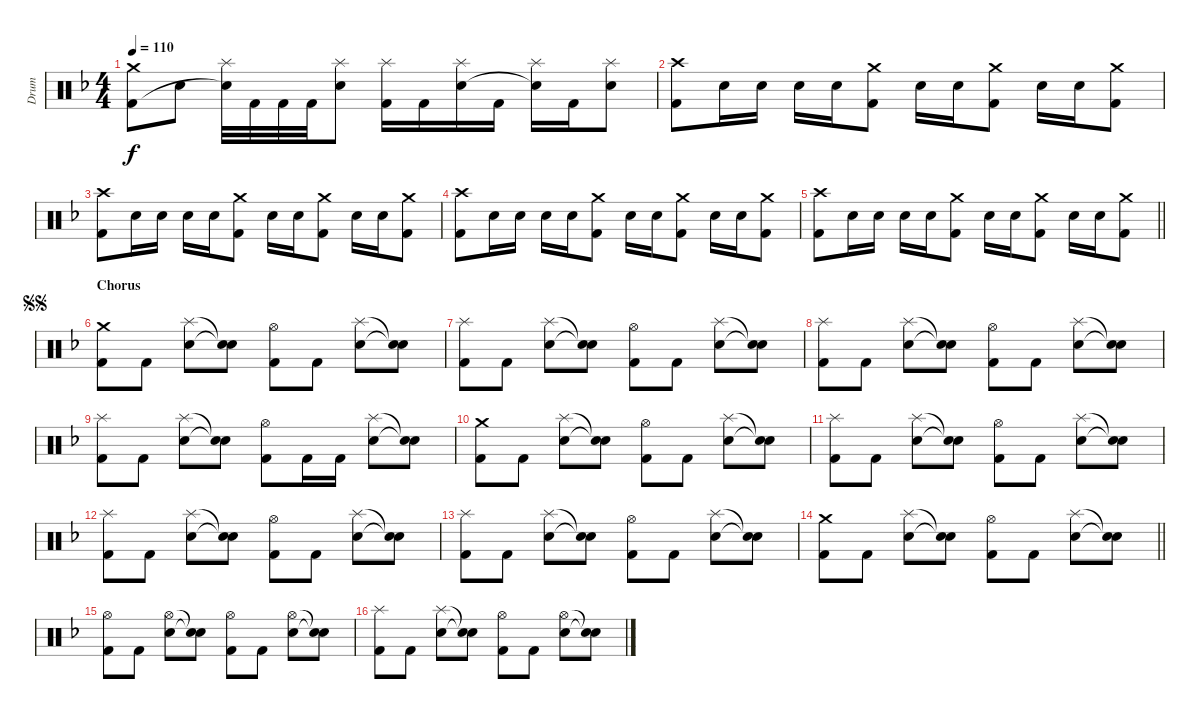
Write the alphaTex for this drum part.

\track ("Drum" "Drum") {instrument percussion}
\staff {score}
\articulation defaults
\ts (4 4)
\tempo 110
\clef neutral
\ks f
("Crash medium (hit)" "Kick (hit) 2").8{dy f} "Snare (hit) 2".8 ("Splash (hit)" "Snare (hit)"{t}).32 "Kick (hit) 2".32 "Kick (hit) 2".32 "Kick (hit) 2".32 ("Splash (hit)" "Snare (hit) 2").8 ("Splash (hit)" "Kick (hit) 2").16 "Kick (hit) 2".16 ("Splash (hit)" "Snare (hit) 2").16 "Kick (hit) 2".16 ("Splash (hit)" "Snare (hit)"{t}).16 "Kick (hit) 2".16 ("Splash (hit)" "Snare (hit) 2").8 |
("Crash high (hit)" "Kick (hit) 2").8 "Electric Snare (hit)".16 "Electric Snare (hit)".16 "Electric Snare (hit)".16 "Electric Snare (hit)".16 ("Crash medium (hit)" "Kick (hit) 2").8 "Electric Snare (hit)".16 "Electric Snare (hit)".16 ("Crash medium (hit)" "Kick (hit) 2").8 "Electric Snare (hit)".16 "Electric Snare (hit)".16 ("Crash medium (hit)" "Kick (hit) 2").8 |
("Crash high (hit)" "Kick (hit) 2").8 "Electric Snare (hit)".16 "Electric Snare (hit)".16 "Electric Snare (hit)".16 "Electric Snare (hit)".16 ("Crash medium (hit)" "Kick (hit) 2").8 "Electric Snare (hit)".16 "Electric Snare (hit)".16 ("Crash medium (hit)" "Kick (hit) 2").8 "Electric Snare (hit)".16 "Electric Snare (hit)".16 ("Crash medium (hit)" "Kick (hit) 2").8 |
("Crash high (hit)" "Kick (hit) 2").8 "Electric Snare (hit)".16 "Electric Snare (hit)".16 "Electric Snare (hit)".16 "Electric Snare (hit)".16 ("Crash medium (hit)" "Kick (hit) 2").8 "Electric Snare (hit)".16 "Electric Snare (hit)".16 ("Crash medium (hit)" "Kick (hit) 2").8 "Electric Snare (hit)".16 "Electric Snare (hit)".16 ("Crash medium (hit)" "Kick (hit) 2").8 |
\barLineRight lightlight
("Crash high (hit)" "Kick (hit) 2").8 "Electric Snare (hit)".16 "Electric Snare (hit)".16 "Electric Snare (hit)".16 "Electric Snare (hit)".16 ("Crash medium (hit)" "Kick (hit) 2").8 "Electric Snare (hit)".16 "Electric Snare (hit)".16 ("Crash medium (hit)" "Kick (hit) 2").8 "Electric Snare (hit)".16 "Electric Snare (hit)".16 ("Crash medium (hit)" "Kick (hit) 2").8 |
\section ("" "Chorus")
\jump segnosegno
("Crash medium (hit)" "Kick (hit) 2").8 "Kick (hit) 2".8 ("Splash (hit)" "Electric Snare (hit)").8 ("Snare (hit)"{t} "Snare (hit)"{t}).8 ("Hi-Hat (open)" "Kick (hit) 2").8 "Kick (hit) 2".8 ("Splash (hit)" "Electric Snare (hit)").8 ("Snare (hit)"{t} "Snare (hit)"{t}).8 |
("Splash (hit)" "Kick (hit) 2").8 "Kick (hit) 2".8 ("Splash (hit)" "Electric Snare (hit)").8 ("Snare (hit)"{t} "Snare (hit)"{t}).8 ("Hi-Hat (open)" "Kick (hit) 2").8 "Kick (hit) 2".8 ("Splash (hit)" "Electric Snare (hit)").8 ("Snare (hit)"{t} "Snare (hit)"{t}).8 |
("Splash (hit)" "Kick (hit) 2").8 "Kick (hit) 2".8 ("Splash (hit)" "Electric Snare (hit)").8 ("Snare (hit)"{t} "Snare (hit)"{t}).8 ("Hi-Hat (open)" "Kick (hit) 2").8 "Kick (hit) 2".8 ("Splash (hit)" "Electric Snare (hit)").8 ("Snare (hit)"{t} "Snare (hit)"{t}).8 |
("Splash (hit)" "Kick (hit) 2").8 "Kick (hit) 2".8 ("Splash (hit)" "Electric Snare (hit)").8 ("Snare (hit)"{t} "Snare (hit)"{t}).8 ("Hi-Hat (open)" "Kick (hit) 2").8 "Kick (hit) 2".16 "Kick (hit) 2".16 ("Splash (hit)" "Electric Snare (hit)").8 ("Snare (hit)"{t} "Snare (hit)"{t}).8 |
("Crash medium (hit)" "Kick (hit) 2").8 "Kick (hit) 2".8 ("Splash (hit)" "Electric Snare (hit)").8 ("Snare (hit)"{t} "Snare (hit)"{t}).8 ("Hi-Hat (open)" "Kick (hit) 2").8 "Kick (hit) 2".8 ("Splash (hit)" "Electric Snare (hit)").8 ("Snare (hit)"{t} "Snare (hit)"{t}).8 |
("Splash (hit)" "Kick (hit) 2").8 "Kick (hit) 2".8 ("Splash (hit)" "Electric Snare (hit)").8 ("Snare (hit)"{t} "Snare (hit)"{t}).8 ("Hi-Hat (open)" "Kick (hit) 2").8 "Kick (hit) 2".8 ("Splash (hit)" "Electric Snare (hit)").8 ("Snare (hit)"{t} "Snare (hit)"{t}).8 |
("Splash (hit)" "Kick (hit) 2").8 "Kick (hit) 2".8 ("Splash (hit)" "Electric Snare (hit)").8 ("Snare (hit)"{t} "Snare (hit)"{t}).8 ("Hi-Hat (open)" "Kick (hit) 2").8 "Kick (hit) 2".8 ("Splash (hit)" "Electric Snare (hit)").8 ("Snare (hit)"{t} "Snare (hit)"{t}).8 |
("Splash (hit)" "Kick (hit) 2").8 "Kick (hit) 2".8 ("Splash (hit)" "Electric Snare (hit)").8 ("Snare (hit)"{t} "Snare (hit)"{t}).8 ("Hi-Hat (open)" "Kick (hit) 2").8 "Kick (hit) 2".8 ("Splash (hit)" "Electric Snare (hit)").8 ("Snare (hit)"{t} "Snare (hit)"{t}).8 |
\barLineRight lightlight
("Crash medium (hit)" "Kick (hit) 2").8 "Kick (hit) 2".8 ("Splash (hit)" "Electric Snare (hit)").8 ("Snare (hit)"{t} "Snare (hit)"{t}).8 ("Hi-Hat (open)" "Kick (hit) 2").8 "Kick (hit) 2".8 ("Splash (hit)" "Electric Snare (hit)").8 ("Snare (hit)"{t} "Snare (hit)"{t}).8 |
("Hi-Hat (open)" "Kick (hit) 2").8 "Kick (hit) 2".8 ("Hi-Hat (open)" "Electric Snare (hit)").8 ("Snare (hit)"{t} "Snare (hit)"{t}).8 ("Hi-Hat (open)" "Kick (hit) 2").8 "Kick (hit) 2".8 ("Hi-Hat (open)" "Electric Snare (hit)").8 ("Snare (hit)"{t} "Snare (hit)"{t}).8 |
("Splash (hit)" "Kick (hit) 2").8 "Kick (hit) 2".8 ("Splash (hit)" "Electric Snare (hit)").8 ("Snare (hit)"{t} "Snare (hit)"{t}).8 ("Hi-Hat (open)" "Kick (hit) 2").8 "Kick (hit) 2".8 ("Hi-Hat (open)" "Electric Snare (hit)").8 ("Snare (hit)"{t} "Snare (hit)"{t}).8
